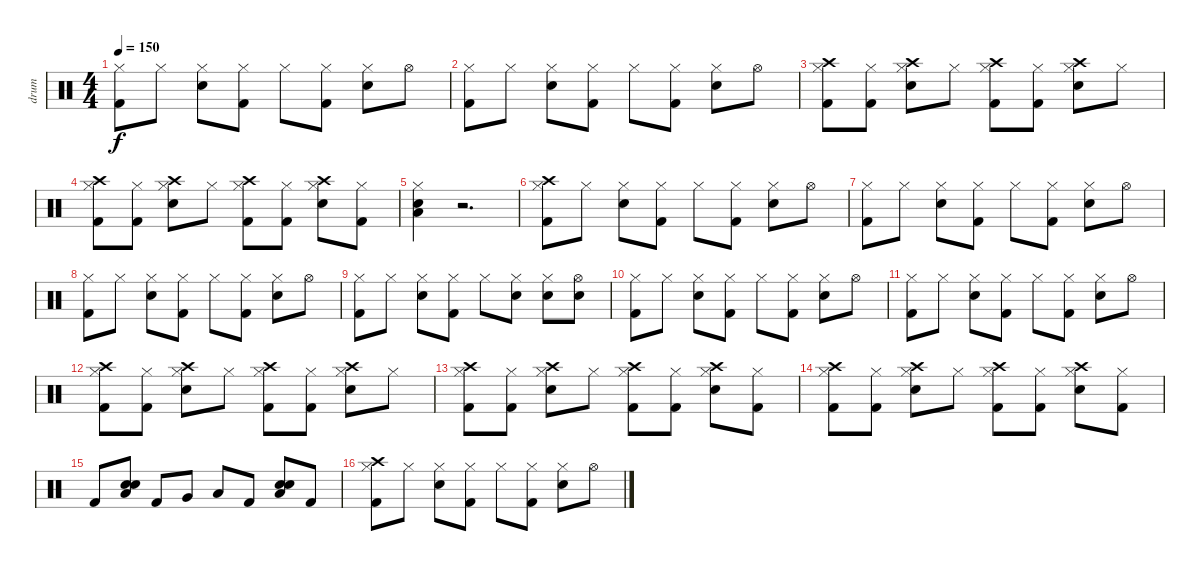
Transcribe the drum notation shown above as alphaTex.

\track ("drum" "drum") {instrument percussion}
\staff {score}
\articulation defaults
\ts (4 4)
\tempo 150
\clef neutral
\ks c
("Hi-Hat (closed)" "Kick (hit) 2").8{dy f} "Hi-Hat (closed)".8 ("Hi-Hat (closed)" "Electric Snare (hit)").8 ("Hi-Hat (closed)" "Kick (hit) 2").8 "Hi-Hat (closed)".8 ("Hi-Hat (closed)" "Kick (hit) 2").8 ("Hi-Hat (closed)" "Electric Snare (hit)").8 "Hi-Hat (open)".8 |
("Hi-Hat (closed)" "Kick (hit) 2").8 "Hi-Hat (closed)".8 ("Hi-Hat (closed)" "Electric Snare (hit)").8 ("Hi-Hat (closed)" "Kick (hit) 2").8 "Hi-Hat (closed)".8 ("Hi-Hat (closed)" "Kick (hit) 2").8 ("Hi-Hat (closed)" "Electric Snare (hit)").8 "Hi-Hat (open)".8 |
("Crash high (hit)" "Hi-Hat (closed)" "Kick (hit) 2").8 ("Hi-Hat (closed)" "Kick (hit) 2").8 ("Crash high (hit)" "Hi-Hat (closed)" "Electric Snare (hit)").8 "Hi-Hat (closed)".8 ("Crash high (hit)" "Hi-Hat (closed)" "Kick (hit) 2").8 ("Hi-Hat (closed)" "Kick (hit) 2").8 ("Crash high (hit)" "Hi-Hat (closed)" "Electric Snare (hit)").8 "Hi-Hat (closed)".8 |
("Crash high (hit)" "Hi-Hat (closed)" "Kick (hit) 2").8 ("Hi-Hat (closed)" "Kick (hit) 2").8 ("Crash high (hit)" "Hi-Hat (closed)" "Electric Snare (hit)").8 "Hi-Hat (closed)".8 ("Crash high (hit)" "Hi-Hat (closed)" "Kick (hit) 2").8 ("Hi-Hat (closed)" "Kick (hit) 2").8 ("Crash high (hit)" "Hi-Hat (closed)" "Electric Snare (hit)").8 ("Hi-Hat (closed)" "Kick (hit) 2").8 |
("Hi-Hat (closed)" "Electric Snare (hit)" "Low Floor Tom (hit)").4 r.2{d} |
("Crash high (hit)" "Hi-Hat (closed)" "Kick (hit) 2").8 "Hi-Hat (closed)".8 ("Hi-Hat (closed)" "Electric Snare (hit)").8 ("Hi-Hat (closed)" "Kick (hit) 2").8 "Hi-Hat (closed)".8 ("Hi-Hat (closed)" "Kick (hit) 2").8 ("Hi-Hat (closed)" "Electric Snare (hit)").8 "Hi-Hat (open)".8 |
("Hi-Hat (closed)" "Kick (hit) 2").8 "Hi-Hat (closed)".8 ("Hi-Hat (closed)" "Electric Snare (hit)").8 ("Hi-Hat (closed)" "Kick (hit) 2").8 "Hi-Hat (closed)".8 ("Hi-Hat (closed)" "Kick (hit) 2").8 ("Hi-Hat (closed)" "Electric Snare (hit)").8 "Hi-Hat (open)".8 |
("Hi-Hat (closed)" "Kick (hit) 2").8 "Hi-Hat (closed)".8 ("Hi-Hat (closed)" "Electric Snare (hit)").8 ("Hi-Hat (closed)" "Kick (hit) 2").8 "Hi-Hat (closed)".8 ("Hi-Hat (closed)" "Kick (hit) 2").8 ("Hi-Hat (closed)" "Electric Snare (hit)").8 "Hi-Hat (open)".8 |
("Hi-Hat (closed)" "Kick (hit) 2").8 "Hi-Hat (closed)".8 ("Hi-Hat (closed)" "Electric Snare (hit)").8 ("Hi-Hat (closed)" "Kick (hit) 2").8 "Hi-Hat (closed)".8 ("Hi-Hat (closed)" "Electric Snare (hit)").8 ("Hi-Hat (closed)" "Electric Snare (hit)").8 ("Hi-Hat (open)" "Electric Snare (hit)").8 |
("Hi-Hat (closed)" "Kick (hit) 2").8 "Hi-Hat (closed)".8 ("Hi-Hat (closed)" "Electric Snare (hit)").8 ("Hi-Hat (closed)" "Kick (hit) 2").8 "Hi-Hat (closed)".8 ("Hi-Hat (closed)" "Kick (hit) 2").8 ("Hi-Hat (closed)" "Electric Snare (hit)").8 "Hi-Hat (open)".8 |
("Hi-Hat (closed)" "Kick (hit) 2").8 "Hi-Hat (closed)".8 ("Hi-Hat (closed)" "Electric Snare (hit)").8 ("Hi-Hat (closed)" "Kick (hit) 2").8 "Hi-Hat (closed)".8 ("Hi-Hat (closed)" "Kick (hit) 2").8 ("Hi-Hat (closed)" "Electric Snare (hit)").8 "Hi-Hat (open)".8 |
("Crash high (hit)" "Hi-Hat (closed)" "Kick (hit) 2").8 ("Hi-Hat (closed)" "Kick (hit) 2").8 ("Crash high (hit)" "Hi-Hat (closed)" "Electric Snare (hit)").8 "Hi-Hat (closed)".8 ("Crash high (hit)" "Hi-Hat (closed)" "Kick (hit) 2").8 ("Hi-Hat (closed)" "Kick (hit) 2").8 ("Crash high (hit)" "Hi-Hat (closed)" "Electric Snare (hit)").8 "Hi-Hat (closed)".8 |
("Crash high (hit)" "Hi-Hat (closed)" "Kick (hit) 2").8 ("Hi-Hat (closed)" "Kick (hit) 2").8 ("Crash high (hit)" "Hi-Hat (closed)" "Electric Snare (hit)").8 "Hi-Hat (closed)".8 ("Crash high (hit)" "Hi-Hat (closed)" "Kick (hit) 2").8 ("Hi-Hat (closed)" "Kick (hit) 2").8 ("Crash high (hit)" "Hi-Hat (closed)" "Electric Snare (hit)").8 ("Hi-Hat (closed)" "Kick (hit) 2").8 |
("Crash high (hit)" "Hi-Hat (closed)" "Kick (hit) 2").8 ("Hi-Hat (closed)" "Kick (hit) 2").8 ("Crash high (hit)" "Hi-Hat (closed)" "Electric Snare (hit)").8 "Hi-Hat (closed)".8 ("Crash high (hit)" "Hi-Hat (closed)" "Kick (hit) 2").8 ("Hi-Hat (closed)" "Kick (hit) 2").8 ("Crash high (hit)" "Hi-Hat (closed)" "Electric Snare (hit)").8 ("Hi-Hat (closed)" "Kick (hit) 2").8 |
"Kick (hit) 2".8 ("Electric Snare (hit)" "Electric Snare (hit)" "Low Tom (hit)").8 "Kick (hit) 2".8 "Very Low Tom (hit)".8 "Low Floor Tom (hit)".8 "Kick (hit) 2".8 ("Electric Snare (hit)" "Electric Snare (hit)" "Low Floor Tom (hit)").8 "Kick (hit) 2".8 |
("Crash high (hit)" "Hi-Hat (closed)" "Kick (hit) 2").8 "Hi-Hat (closed)".8 ("Hi-Hat (closed)" "Electric Snare (hit)").8 ("Hi-Hat (closed)" "Kick (hit) 2").8 "Hi-Hat (closed)".8 ("Hi-Hat (closed)" "Kick (hit) 2").8 ("Hi-Hat (closed)" "Electric Snare (hit)").8 "Hi-Hat (open)".8
